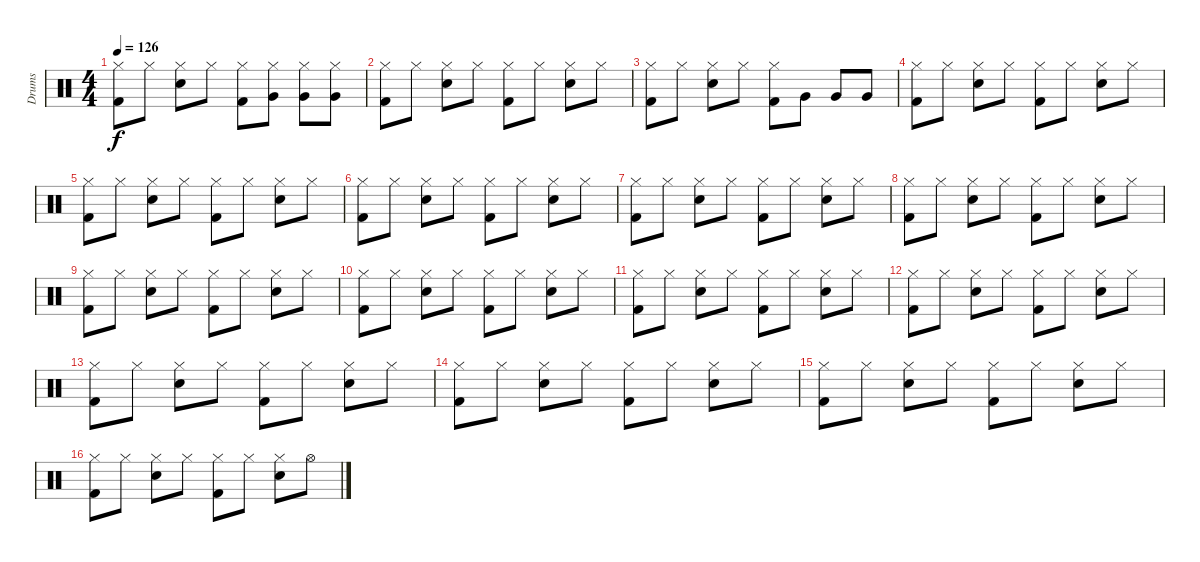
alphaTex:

\track ("Drums" "Drums") {instrument percussion}
\staff {score}
\articulation defaults
\ts (4 4)
\tempo 126
\clef neutral
\ks c
("Kick (hit) 2" "Hi-Hat (closed)").8{dy f} "Hi-Hat (closed)".8 ("Snare (hit) 2" "Hi-Hat (closed)").8 "Hi-Hat (closed)".8 ("Kick (hit) 2" "Hi-Hat (closed)").8 ("Very Low Tom (hit)" "Hi-Hat (closed)").8 ("Very Low Tom (hit)" "Hi-Hat (closed)").8 ("Very Low Tom (hit)" "Hi-Hat (closed)").8 |
("Kick (hit) 2" "Hi-Hat (closed)").8 "Hi-Hat (closed)".8 ("Snare (hit) 2" "Hi-Hat (closed)").8 "Hi-Hat (closed)".8 ("Kick (hit) 2" "Hi-Hat (closed)").8 "Hi-Hat (closed)".8 ("Snare (hit) 2" "Hi-Hat (closed)").8 "Hi-Hat (closed)".8 |
("Kick (hit) 2" "Hi-Hat (closed)").8 "Hi-Hat (closed)".8 ("Snare (hit) 2" "Hi-Hat (closed)").8 "Hi-Hat (closed)".8 ("Kick (hit) 2" "Hi-Hat (closed)").8 "Very Low Tom (hit)".8 "Very Low Tom (hit)".8 "Very Low Tom (hit)".8 |
("Kick (hit) 2" "Hi-Hat (closed)").8 "Hi-Hat (closed)".8 ("Snare (hit) 2" "Hi-Hat (closed)").8 "Hi-Hat (closed)".8 ("Kick (hit) 2" "Hi-Hat (closed)").8 "Hi-Hat (closed)".8 ("Snare (hit) 2" "Hi-Hat (closed)").8 "Hi-Hat (closed)".8 |
("Kick (hit) 2" "Hi-Hat (closed)").8 "Hi-Hat (closed)".8 ("Snare (hit) 2" "Hi-Hat (closed)").8 "Hi-Hat (closed)".8 ("Kick (hit) 2" "Hi-Hat (closed)").8 "Hi-Hat (closed)".8 ("Snare (hit) 2" "Hi-Hat (closed)").8 "Hi-Hat (closed)".8 |
("Kick (hit) 2" "Hi-Hat (closed)").8 "Hi-Hat (closed)".8 ("Snare (hit) 2" "Hi-Hat (closed)").8 "Hi-Hat (closed)".8 ("Kick (hit) 2" "Hi-Hat (closed)").8 "Hi-Hat (closed)".8 ("Snare (hit) 2" "Hi-Hat (closed)").8 "Hi-Hat (closed)".8 |
("Kick (hit) 2" "Hi-Hat (closed)").8 "Hi-Hat (closed)".8 ("Snare (hit) 2" "Hi-Hat (closed)").8 "Hi-Hat (closed)".8 ("Kick (hit) 2" "Hi-Hat (closed)").8 "Hi-Hat (closed)".8 ("Snare (hit) 2" "Hi-Hat (closed)").8 "Hi-Hat (closed)".8 |
("Kick (hit) 2" "Hi-Hat (closed)").8 "Hi-Hat (closed)".8 ("Snare (hit) 2" "Hi-Hat (closed)").8 "Hi-Hat (closed)".8 ("Kick (hit) 2" "Hi-Hat (closed)").8 "Hi-Hat (closed)".8 ("Snare (hit) 2" "Hi-Hat (closed)").8 "Hi-Hat (closed)".8 |
("Kick (hit) 2" "Hi-Hat (closed)").8 "Hi-Hat (closed)".8 ("Snare (hit) 2" "Hi-Hat (closed)").8 "Hi-Hat (closed)".8 ("Kick (hit) 2" "Hi-Hat (closed)").8 "Hi-Hat (closed)".8 ("Snare (hit) 2" "Hi-Hat (closed)").8 "Hi-Hat (closed)".8 |
("Kick (hit) 2" "Hi-Hat (closed)").8 "Hi-Hat (closed)".8 ("Snare (hit) 2" "Hi-Hat (closed)").8 "Hi-Hat (closed)".8 ("Kick (hit) 2" "Hi-Hat (closed)").8 "Hi-Hat (closed)".8 ("Snare (hit) 2" "Hi-Hat (closed)").8 "Hi-Hat (closed)".8 |
("Kick (hit) 2" "Hi-Hat (closed)").8 "Hi-Hat (closed)".8 ("Snare (hit) 2" "Hi-Hat (closed)").8 "Hi-Hat (closed)".8 ("Kick (hit) 2" "Hi-Hat (closed)").8 "Hi-Hat (closed)".8 ("Snare (hit) 2" "Hi-Hat (closed)").8 "Hi-Hat (closed)".8 |
("Kick (hit) 2" "Hi-Hat (closed)").8 "Hi-Hat (closed)".8 ("Snare (hit) 2" "Hi-Hat (closed)").8 "Hi-Hat (closed)".8 ("Kick (hit) 2" "Hi-Hat (closed)").8 "Hi-Hat (closed)".8 ("Snare (hit) 2" "Hi-Hat (closed)").8 "Hi-Hat (closed)".8 |
("Kick (hit) 2" "Hi-Hat (closed)").8 "Hi-Hat (closed)".8 ("Snare (hit) 2" "Hi-Hat (closed)").8 "Hi-Hat (closed)".8 ("Kick (hit) 2" "Hi-Hat (closed)").8 "Hi-Hat (closed)".8 ("Snare (hit) 2" "Hi-Hat (closed)").8 "Hi-Hat (closed)".8 |
("Kick (hit) 2" "Hi-Hat (closed)").8 "Hi-Hat (closed)".8 ("Snare (hit) 2" "Hi-Hat (closed)").8 "Hi-Hat (closed)".8 ("Kick (hit) 2" "Hi-Hat (closed)").8 "Hi-Hat (closed)".8 ("Snare (hit) 2" "Hi-Hat (closed)").8 "Hi-Hat (closed)".8 |
("Kick (hit) 2" "Hi-Hat (closed)").8 "Hi-Hat (closed)".8 ("Snare (hit) 2" "Hi-Hat (closed)").8 "Hi-Hat (closed)".8 ("Kick (hit) 2" "Hi-Hat (closed)").8 "Hi-Hat (closed)".8 ("Snare (hit) 2" "Hi-Hat (closed)").8 "Hi-Hat (closed)".8 |
("Kick (hit) 2" "Hi-Hat (closed)").8 "Hi-Hat (closed)".8 ("Snare (hit) 2" "Hi-Hat (closed)").8 "Hi-Hat (closed)".8 ("Kick (hit) 2" "Hi-Hat (closed)").8 "Hi-Hat (closed)".8 ("Snare (hit) 2" "Hi-Hat (closed)").8 "Hi-Hat (open)".8
